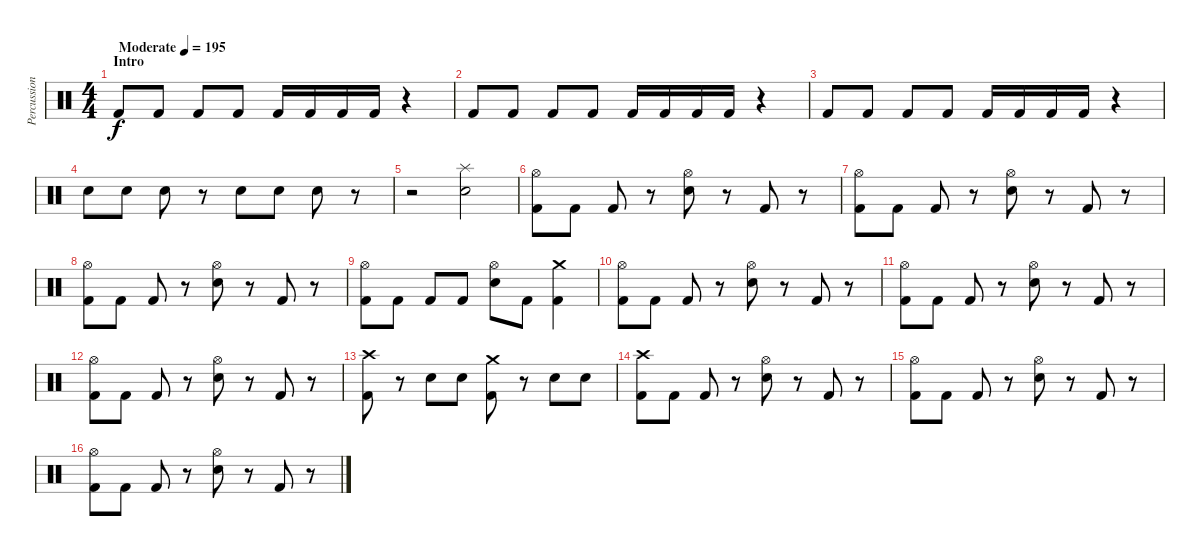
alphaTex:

\track ("Percussion" "Percussion") {instrument percussion}
\staff {score}
\articulation defaults
\ts (4 4)
\section ("" "Intro")
\tempo (195 "Moderate")
\clef neutral
\ks c "Kick (hit) 2".8{dy f} "Kick (hit) 2".8 "Kick (hit) 2".8 "Kick (hit) 2".8 "Kick (hit) 2".16 "Kick (hit) 2".16 "Kick (hit) 2".16 "Kick (hit) 2".16
r.4 |
"Kick (hit) 2".8 "Kick (hit) 2".8 "Kick (hit) 2".8 "Kick (hit) 2".8 "Kick (hit) 2".16 "Kick (hit) 2".16 "Kick (hit) 2".16 "Kick (hit) 2".16 r.4 |
"Kick (hit) 2".8 "Kick (hit) 2".8 "Kick (hit) 2".8 "Kick (hit) 2".8 "Kick (hit) 2".16 "Kick (hit) 2".16 "Kick (hit) 2".16 "Kick (hit) 2".16 r.4 |
"Snare (hit) 2".8 "Snare (hit) 2".8 "Snare (hit) 2".8 r.8 "Snare (hit) 2".8 "Snare (hit) 2".8 "Snare (hit) 2".8 r.8 |
r.2 ("Splash (hit)" "Snare (hit) 2").2 |
("Hi-Hat (open)" "Kick (hit) 2").8 "Kick (hit) 2".8 "Kick (hit) 2".8 r.8 ("Hi-Hat (open)" "Snare (hit) 2").8 r.8 "Kick (hit) 2".8 r.8 |
("Hi-Hat (open)" "Kick (hit) 2").8 "Kick (hit) 2".8 "Kick (hit) 2".8 r.8 ("Hi-Hat (open)" "Snare (hit) 2").8 r.8 "Kick (hit) 2".8 r.8 |
("Hi-Hat (open)" "Kick (hit) 2").8 "Kick (hit) 2".8 "Kick (hit) 2".8 r.8 ("Hi-Hat (open)" "Snare (hit) 2").8 r.8 "Kick (hit) 2".8 r.8 |
("Hi-Hat (open)" "Kick (hit) 2").8 "Kick (hit) 2".8 "Kick (hit) 2".8 "Kick (hit) 2".8 ("Hi-Hat (open)" "Snare (hit) 2").8 "Kick (hit) 2".8 ("Crash medium (hit)" "Kick (hit) 2").4 |
("Hi-Hat (open)" "Kick (hit) 2").8 "Kick (hit) 2".8 "Kick (hit) 2".8 r.8 ("Hi-Hat (open)" "Snare (hit) 2").8 r.8 "Kick (hit) 2".8 r.8 |
("Hi-Hat (open)" "Kick (hit) 2").8 "Kick (hit) 2".8 "Kick (hit) 2".8 r.8 ("Hi-Hat (open)" "Snare (hit) 2").8 r.8 "Kick (hit) 2".8 r.8 |
("Hi-Hat (open)" "Kick (hit) 2").8 "Kick (hit) 2".8 "Kick (hit) 2".8 r.8 ("Hi-Hat (open)" "Snare (hit) 2").8 r.8 "Kick (hit) 2".8 r.8 |
("Crash high (hit)" "Kick (hit) 2").8 r.8 "Snare (hit) 2".8 "Snare (hit) 2".8 ("Crash medium (hit)" "Kick (hit) 2").8 r.8 "Snare (hit) 2".8 "Snare (hit) 2".8 |
("Crash high (hit)" "Kick (hit) 2").8 "Kick (hit) 2".8 "Kick (hit) 2".8 r.8 ("Hi-Hat (open)" "Snare (hit) 2").8 r.8 "Kick (hit) 2".8 r.8 |
("Hi-Hat (open)" "Kick (hit) 2").8 "Kick (hit) 2".8 "Kick (hit) 2".8 r.8 ("Hi-Hat (open)" "Snare (hit) 2").8 r.8 "Kick (hit) 2".8 r.8 |
("Hi-Hat (open)" "Kick (hit) 2").8 "Kick (hit) 2".8 "Kick (hit) 2".8 r.8 ("Hi-Hat (open)" "Snare (hit) 2").8 r.8 "Kick (hit) 2".8 r.8
